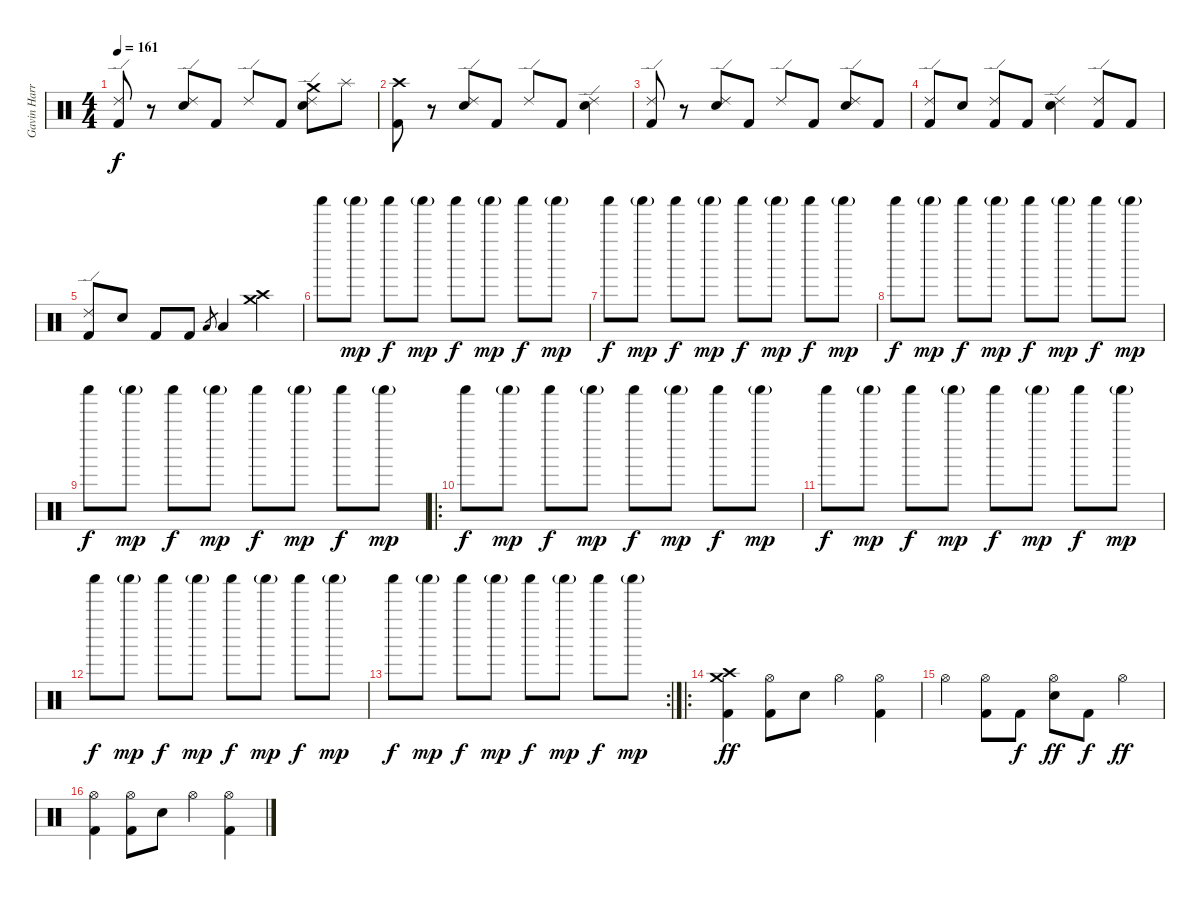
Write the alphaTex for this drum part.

\track ("Gavin Harrison (Drums)" "Gavin Harr") {instrument percussion}
\staff {score}
\articulation defaults
\ts (4 4)
\tempo 161
\clef neutral
\ks c
("Ride (edge) 2" "Kick (hit) 2").8{dy f} r.8 ("Ride (edge) 2" "Electric Snare (hit)").8 "Kick (hit) 2".8 "Ride (edge) 2".8 "Kick (hit) 2".8 ("Crash medium (hit)" "Ride (edge) 2" "Electric Snare (hit)").8 "Splash (hit)".8 |
("Crash high (hit)" "Kick (hit) 2").8 r.8 ("Ride (edge) 2" "Electric Snare (hit)").8 "Kick (hit) 2".8 "Ride (edge) 2".8 "Kick (hit) 2".8 ("Ride (edge) 2" "Electric Snare (hit)").4 |
("Ride (edge) 2" "Kick (hit) 2").8 r.8 ("Ride (edge) 2" "Electric Snare (hit)").8 "Kick (hit) 2".8 "Ride (edge) 2".8 "Kick (hit) 2".8 ("Ride (edge) 2" "Electric Snare (hit)").8 "Kick (hit) 2".8 |
("Ride (edge) 2" "Kick (hit) 2").8 "Electric Snare (hit)".8 ("Ride (edge) 2" "Kick (hit) 2").8 "Kick (hit) 2".8 ("Ride (edge) 2" "Electric Snare (hit)").4 ("Ride (edge) 2" "Kick (hit) 2").8 "Kick (hit) 2".8 |
("Ride (edge) 2" "Kick (hit) 2").8 "Electric Snare (hit)".8 "Kick (hit) 2".8 "Kick (hit) 2".8 "Low Floor Tom (hit)".8{gr} "Low Floor Tom (hit)".4 ("Crash medium (hit)" "Crash high (hit)").4 |
"Shaker (hit)".8 "Shaker (hit)"{g}.8{dy mp} "Shaker (hit)".8{dy f} "Shaker (hit)"{g}.8{dy mp} "Shaker (hit)".8{dy f} "Shaker (hit)"{g}.8{dy mp} "Shaker (hit)".8{dy f} "Shaker (hit)"{g}.8{dy mp} |
"Shaker (hit)".8{dy f} "Shaker (hit)"{g}.8{dy mp} "Shaker (hit)".8{dy f} "Shaker (hit)"{g}.8{dy mp} "Shaker (hit)".8{dy f} "Shaker (hit)"{g}.8{dy mp} "Shaker (hit)".8{dy f} "Shaker (hit)"{g}.8{dy mp} |
"Shaker (hit)".8{dy f} "Shaker (hit)"{g}.8{dy mp} "Shaker (hit)".8{dy f} "Shaker (hit)"{g}.8{dy mp} "Shaker (hit)".8{dy f} "Shaker (hit)"{g}.8{dy mp} "Shaker (hit)".8{dy f} "Shaker (hit)"{g}.8{dy mp} |
"Shaker (hit)".8{dy f} "Shaker (hit)"{g}.8{dy mp} "Shaker (hit)".8{dy f} "Shaker (hit)"{g}.8{dy mp} "Shaker (hit)".8{dy f} "Shaker (hit)"{g}.8{dy mp} "Shaker (hit)".8{dy f} "Shaker (hit)"{g}.8{dy mp} |
\ro "Shaker (hit)".8{dy f} "Shaker (hit)"{g}.8{dy mp} "Shaker (hit)".8{dy f} "Shaker (hit)"{g}.8{dy mp} "Shaker (hit)".8{dy f} "Shaker (hit)"{g}.8{dy mp} "Shaker (hit)".8{dy f} "Shaker (hit)"{g}.8{dy mp}
|
"Shaker (hit)".8{dy f} "Shaker (hit)"{g}.8{dy mp} "Shaker (hit)".8{dy f} "Shaker (hit)"{g}.8{dy mp} "Shaker (hit)".8{dy f} "Shaker (hit)"{g}.8{dy mp} "Shaker (hit)".8{dy f} "Shaker (hit)"{g}.8{dy mp} |
"Shaker (hit)".8{dy f} "Shaker (hit)"{g}.8{dy mp} "Shaker (hit)".8{dy f} "Shaker (hit)"{g}.8{dy mp} "Shaker (hit)".8{dy f} "Shaker (hit)"{g}.8{dy mp} "Shaker (hit)".8{dy f} "Shaker (hit)"{g}.8{dy mp} |
\rc 2 "Shaker (hit)".8{dy f} "Shaker (hit)"{g}.8{dy mp} "Shaker (hit)".8{dy f} "Shaker (hit)"{g}.8{dy mp} "Shaker (hit)".8{dy f} "Shaker (hit)"{g}.8{dy mp} "Shaker (hit)".8{dy f} "Shaker (hit)"{g}.8{dy mp}
|
\ro
("Crash high (hit)" "Crash medium (hit)" "Kick (hit) 2").4{dy ff volume 16} ("Hi-Hat (open)" "Kick (hit) 2").8 "Electric Snare (hit)".8 "Hi-Hat (open)".4 ("Hi-Hat (open)" "Kick (hit) 2").4 |
"Hi-Hat (open)".4 ("Hi-Hat (open)" "Kick (hit) 2").8 "Kick (hit) 2".8{dy f} ("Hi-Hat (open)" "Electric Snare (hit)").8{dy ff} "Kick (hit) 2".8{dy f} "Hi-Hat (open)".4{dy ff} |
("Hi-Hat (open)" "Kick (hit) 2").4 ("Hi-Hat (open)" "Kick (hit) 2").8 "Electric Snare (hit)".8 "Hi-Hat (open)".4 ("Hi-Hat (open)" "Kick (hit) 2").4
